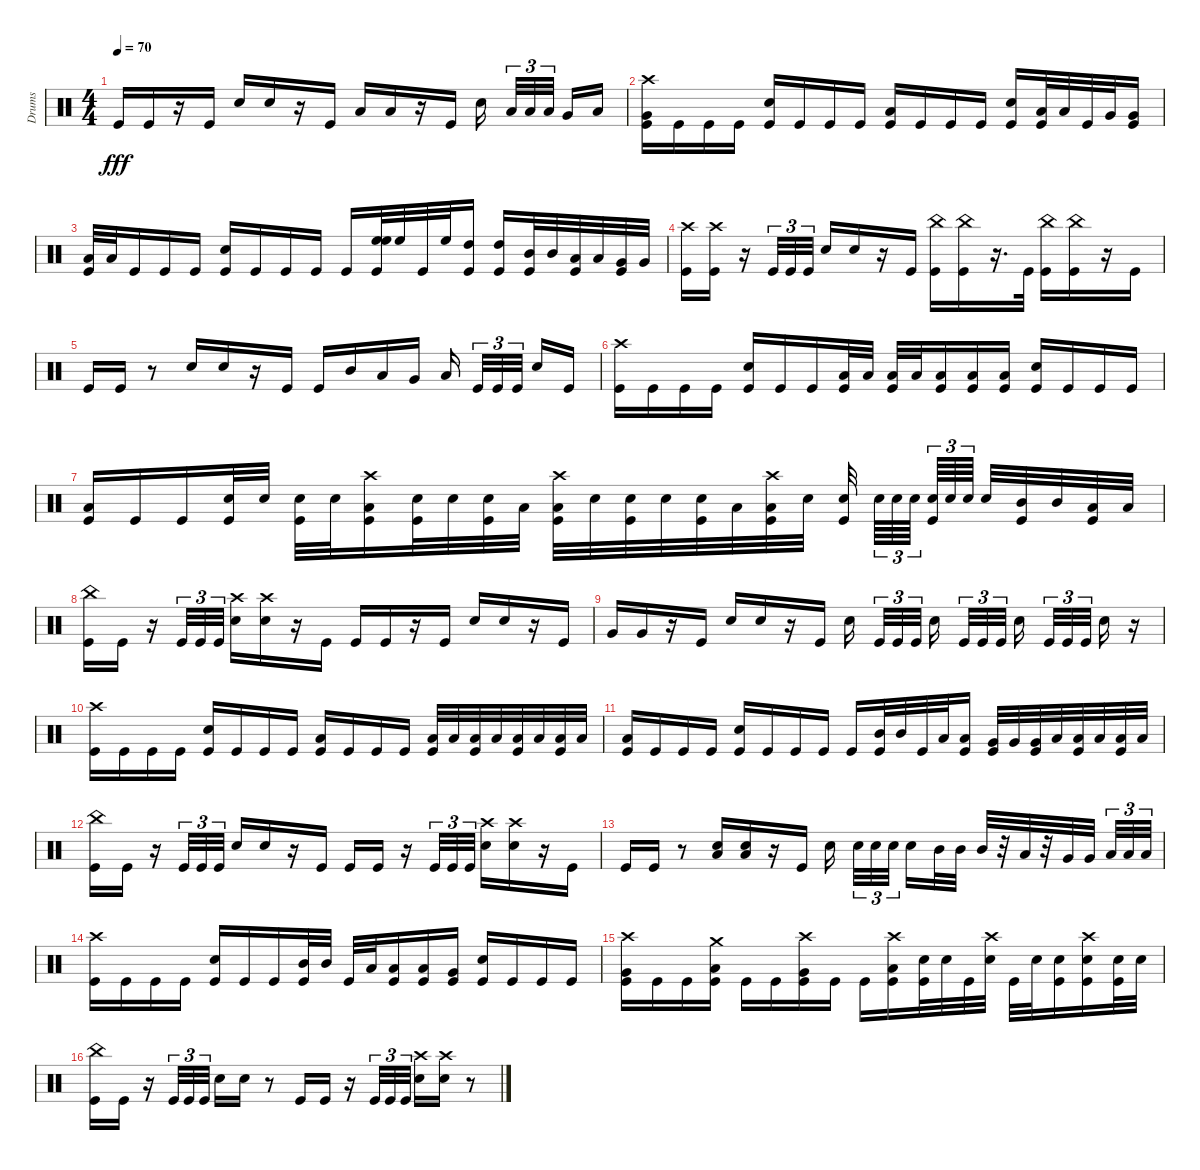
\track ("Drums" "Drums") {instrument percussion}
\staff {score}
\articulation defaults
\ts (4 4)
\tempo 70
\clef neutral
\ks c "Kick (hit)".16{dy fff} "Kick (hit)".16
r.16 "Kick (hit)".16 "Snare (hit) 2".16 "Snare (hit) 2".16 r.16 "Kick (hit)".16 "Low Floor Tom (hit)".16 "Low Floor Tom (hit)".16 r.16 "Kick (hit)".16 "Snare (hit) 2".16{beam splitsecondary} "Low Tom (hit)".32{tu (3 2)} "Low Tom (hit)".32{tu (3 2)} "Low Tom (hit)".32{tu (3 2) beam splitsecondary} "Very Low Tom (hit)".16 "Low Floor Tom (hit)".16 |
("Very Low Tom (hit)" "Crash high (hit)" "Kick (hit)").16 "Kick (hit)".16 "Kick (hit)".16 "Kick (hit)".16 ("Snare (hit) 2" "Kick (hit)").16 "Kick (hit)".16 "Kick (hit)".16 "Kick (hit)".16 ("Low Floor Tom (hit)" "Kick (hit)").16 "Kick (hit)".16 "Kick (hit)".16 "Kick (hit)".16 ("Snare (hit) 2" "Kick (hit)").16 ("Low Tom (hit)" "Kick (hit)").32 "Low Tom (hit)".32 "Kick (hit)".32 "Very Low Tom (hit)".32 ("Very Low Tom (hit)" "Kick (hit)").16 |
("Low Floor Tom (hit)" "Kick (hit)").32 "Low Floor Tom (hit)".32 "Kick (hit)".16 "Kick (hit)".16 "Kick (hit)".16 ("Snare (hit) 2" "Kick (hit)").16 "Kick (hit)".16 "Kick (hit)".16 "Kick (hit)".16 "Kick (hit)".16 ("High Floor Tom (hit)" "Kick (hit)" "High Floor Tom (hit)").32 "High Floor Tom (hit)".32 "Kick (hit)".32 "High Floor Tom (hit)".32 ("High Tom (hit)" "Kick (hit)").16 ("High Tom (hit)" "Kick (hit)").16 ("Mid Tom (hit)" "Kick (hit)").32 "Mid Tom (hit)".32 ("Low Tom (hit)" "Kick (hit)").32 "Low Tom (hit)".32 ("Very Low Tom (hit)" "Kick (hit)").32 "Very Low Tom (hit)".32 |
("Crash high (hit)" "Kick (hit)").16 ("Crash high (hit)" "Kick (hit)").16 r.16 "Kick (hit)".32{tu (3 2)} "Kick (hit)".32{tu (3 2)} "Kick (hit)".32{tu (3 2)} "Snare (hit) 2".16 "Snare (hit) 2".16 r.16 "Kick (hit)".16 ("China (hit)" "Kick (hit)").16 ("China (hit)" "Kick (hit)").16 r.16{d} "Kick (hit)".32 ("China (hit)" "Kick (hit)").16 ("China (hit)" "Kick (hit)").16 r.16 "Kick (hit)".16 |
"Kick (hit)".16 "Kick (hit)".16 r.8 "Snare (hit) 2".16 "Snare (hit) 2".16 r.16 "Kick (hit)".16 "Kick (hit)".16 "Mid Tom (hit)".16 "Low Tom (hit)".16 "Very Low Tom (hit)".16 "Low Floor Tom (hit)".16{beam splitsecondary} "Kick (hit)".32{tu (3 2)} "Kick (hit)".32{tu (3 2)} "Kick (hit)".32{tu (3 2) beam splitsecondary} "Snare (hit) 2".16 "Kick (hit)".16 |
("Crash high (hit)" "Kick (hit)").16 "Kick (hit)".16 "Kick (hit)".16 "Kick (hit)".16 ("Snare (hit) 2" "Kick (hit)").16 "Kick (hit)".16 "Kick (hit)".16 ("Low Tom (hit)" "Kick (hit)").32 "Low Tom (hit)".32 ("Low Tom (hit)" "Kick (hit)").32 "Low Tom (hit)".32 ("Low Tom (hit)" "Kick (hit)").16 ("Low Tom (hit)" "Kick (hit)").16 ("Low Tom (hit)" "Kick (hit)").16 ("Snare (hit) 2" "Kick (hit)").16 "Kick (hit)".16 "Kick (hit)".16 "Kick (hit)".16 |
("Low Tom (hit)" "Kick (hit)").16 "Kick (hit)".16 "Kick (hit)".16 ("Snare (hit) 2" "Kick (hit)").32 "Snare (hit) 2".32 ("Snare (hit) 2" "Kick (hit)").32 "Snare (hit) 2".32 ("Crash high (hit)" "Low Tom (hit)" "Kick (hit)").16 ("Snare (hit) 2" "Kick (hit)").32 "Snare (hit) 2".32 ("Snare (hit) 2" "Kick (hit)").32 "Low Tom (hit)".32 ("Crash high (hit)" "Low Tom (hit)" "Kick (hit)").32 "Snare (hit) 2".32 ("Snare (hit) 2" "Kick (hit)").32 "Snare (hit) 2".32 ("Snare (hit) 2" "Kick (hit)").32 "Low Tom (hit)".32 ("Crash high (hit)" "Low Tom (hit)" "Kick (hit)").32 "Snare (hit) 2".32 ("Snare (hit) 2" "Kick (hit)").32{beam splitsecondary} "Snare (hit) 2".64{tu (3 2)} "Snare (hit) 2".64{tu (3 2)} "Snare (hit) 2".64{tu (3 2) beam splitsecondary} ("Snare (hit) 2" "Kick (hit)").64{tu (3 2)} "Snare (hit) 2".64{tu (3 2)} "Snare (hit) 2".64{tu (3 2) beam splitsecondary} "Snare (hit) 2".32 ("Mid Tom (hit)" "Kick (hit)").32 "Mid Tom (hit)".32 ("Low Tom (hit)" "Kick (hit)").32 "Low Tom (hit)".32 |
("China (hit)" "Kick (hit)").16 "Kick (hit)".16 r.16 "Kick (hit)".32{tu (3 2)} "Kick (hit)".32{tu (3 2)} "Kick (hit)".32{tu (3 2)} ("Crash high (hit)" "Snare (hit) 2").16 ("Crash high (hit)" "Snare (hit) 2").16 r.16 "Kick (hit)".16 "Kick (hit)".16 "Kick (hit)".16 r.16 "Kick (hit)".16 "Snare (hit) 2".16 "Snare (hit) 2".16 r.16 "Kick (hit)".16 |
"Very Low Tom (hit)".16 "Very Low Tom (hit)".16 r.16 "Kick (hit)".16 "Snare (hit) 2".16 "Snare (hit) 2".16 r.16 "Kick (hit)".16 "Snare (hit) 2".16{beam splitsecondary} "Kick (hit)".32{tu (3 2)} "Kick (hit)".32{tu (3 2)} "Kick (hit)".32{tu (3 2) beam splitsecondary} "Snare (hit) 2".16{beam splitsecondary} "Kick (hit)".32{tu (3 2)} "Kick (hit)".32{tu (3 2)} "Kick (hit)".32{tu (3 2)} "Snare (hit) 2".16{beam splitsecondary} "Kick (hit)".32{tu (3 2)} "Kick (hit)".32{tu (3 2)} "Kick (hit)".32{tu (3 2) beam splitsecondary} "Snare (hit) 2".16 r.16 |
("Crash high (hit)" "Kick (hit)").16 "Kick (hit)".16 "Kick (hit)".16 "Kick (hit)".16 ("Snare (hit) 2" "Kick (hit)").16 "Kick (hit)".16 "Kick (hit)".16 "Kick (hit)".16 ("Low Floor Tom (hit)" "Kick (hit)").16 "Kick (hit)".16 "Kick (hit)".16 "Kick (hit)".16 ("Low Tom (hit)" "Kick (hit)").32 "Low Tom (hit)".32 ("Low Tom (hit)" "Kick (hit)").32 "Low Tom (hit)".32 ("Low Tom (hit)" "Kick (hit)").32 "Low Tom (hit)".32 ("Low Tom (hit)" "Kick (hit)").32 "Low Tom (hit)".32 |
("Low Tom (hit)" "Kick (hit)").16 "Kick (hit)".16 "Kick (hit)".16 "Kick (hit)".16 ("Snare (hit) 2" "Kick (hit)").16 "Kick (hit)".16 "Kick (hit)".16 "Kick (hit)".16 "Kick (hit)".16 ("Mid Tom (hit)" "Kick (hit)").32 "Mid Tom (hit)".32 "Kick (hit)".32 "Low Tom (hit)".32 ("Low Tom (hit)" "Kick (hit)").16 ("Very Low Tom (hit)" "Kick (hit)").32 "Very Low Tom (hit)".32 ("Very Low Tom (hit)" "Kick (hit)").32 "Low Floor Tom (hit)".32 ("Low Floor Tom (hit)" "Kick (hit)").32 "Low Floor Tom (hit)".32 ("Low Floor Tom (hit)" "Kick (hit)").32 "Low Floor Tom (hit)".32 |
("Kick (hit)" "China (hit)").16 "Kick (hit)".16 r.16 "Kick (hit)".32{tu (3 2)} "Kick (hit)".32{tu (3 2)} "Kick (hit)".32{tu (3 2)} "Snare (hit) 2".16 "Snare (hit) 2".16 r.16 "Kick (hit)".16 "Kick (hit)".16 "Kick (hit)".16 r.16 "Kick (hit)".32{tu (3 2)} "Kick (hit)".32{tu (3 2)} "Kick (hit)".32{tu (3 2)} ("Crash high (hit)" "Snare (hit) 2").16 ("Crash high (hit)" "Snare (hit) 2").16 r.16 "Kick (hit)".16 |
"Kick (hit)".16 "Kick (hit)".16 r.8 ("Low Floor Tom (hit)" "Snare (hit) 2").16 ("Low Floor Tom (hit)" "Snare (hit) 2").16 r.16 "Kick (hit)".16 "Snare (hit) 2".16{beam splitsecondary} "Snare (hit) 2".32{tu (3 2)} "Snare (hit) 2".32{tu (3 2)} "Snare (hit) 2".32{tu (3 2) beam splitsecondary} "Snare (hit) 2".16 "Mid Tom (hit)".32 "Mid Tom (hit)".32 "Mid Tom (hit)".32 r.32 "Low Tom (hit)".32 r.32 "Very Low Tom (hit)".32 "Very Low Tom (hit)".32{beam splitsecondary} "Low Floor Tom (hit)".32{tu (3 2)} "Low Floor Tom (hit)".32{tu (3 2)} "Low Floor Tom (hit)".32{tu (3 2)} |
("Crash high (hit)" "Kick (hit)").16 "Kick (hit)".16 "Kick (hit)".16 "Kick (hit)".16 ("Snare (hit) 2" "Kick (hit)").16 "Kick (hit)".16 "Kick (hit)".16 ("Mid Tom (hit)" "Kick (hit)").32 "Mid Tom (hit)".32 "Kick (hit)".32 "Low Tom (hit)".32 ("Low Tom (hit)" "Kick (hit)").16 ("Low Tom (hit)" "Kick (hit)").16 ("Very Low Tom (hit)" "Kick (hit)").16 ("Snare (hit) 2" "Kick (hit)").16 "Kick (hit)".16 "Kick (hit)".16 "Kick (hit)".16 |
("Very Low Tom (hit)" "Crash high (hit)" "Kick (hit)").16 "Kick (hit)".16 "Kick (hit)".16 ("Low Tom (hit)" "Crash medium (hit)" "Kick (hit)").16 "Kick (hit)".16 "Kick (hit)".16 ("Very Low Tom (hit)" "Crash high (hit)" "Kick (hit)").16 "Kick (hit)".16 "Kick (hit)".16 ("Crash high (hit)" "Low Tom (hit)" "Kick (hit)").16 ("Snare (hit) 2" "Kick (hit)").32 "Snare (hit) 2".32 "Kick (hit)".32 ("Crash high (hit)" "Snare (hit) 2").32 "Kick (hit)".32 "Snare (hit) 2".32 ("Snare (hit) 2" "Kick (hit)").16 ("Crash high (hit)" "Snare (hit) 2" "Kick (hit)").16 ("Snare (hit) 2" "Kick (hit)").32 "Snare (hit) 2".32 |
("China (hit)" "Kick (hit)").16 "Kick (hit)".16 r.16 "Kick (hit)".32{tu (3 2)} "Kick (hit)".32{tu (3 2)} "Kick (hit)".32{tu (3 2)} "Snare (hit) 2".16 "Snare (hit) 2".16 r.8 "Kick (hit)".16 "Kick (hit)".16 r.16 "Kick (hit)".32{tu (3 2)} "Kick (hit)".32{tu (3 2)} "Kick (hit)".32{tu (3 2)} ("Crash high (hit)" "Snare (hit) 2").16 ("Crash high (hit)" "Snare (hit) 2").16 r.8
